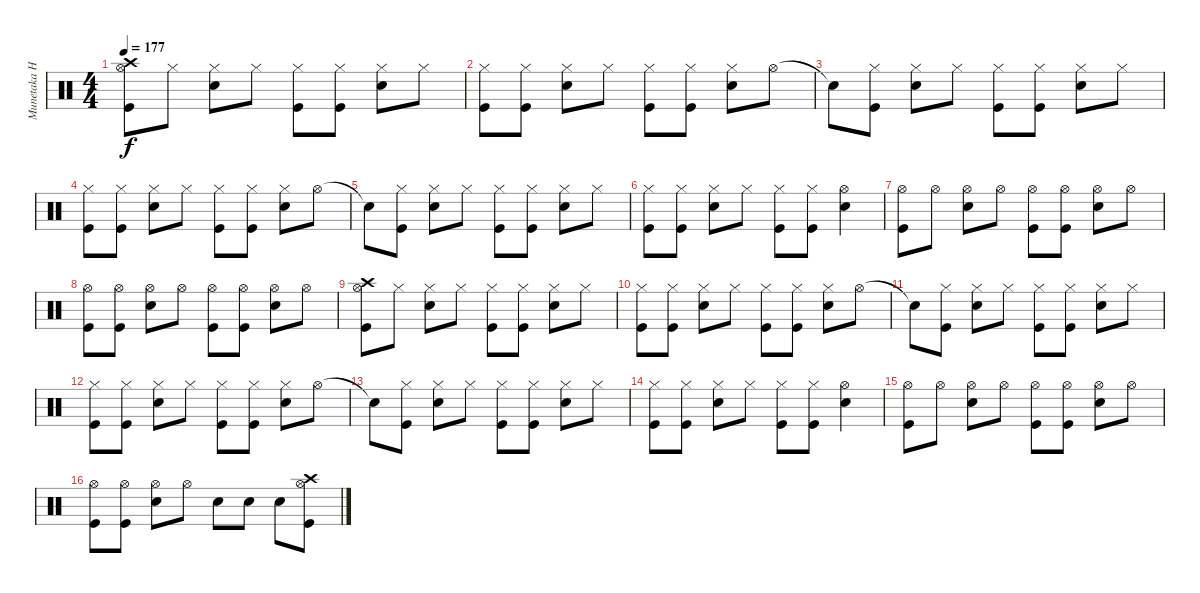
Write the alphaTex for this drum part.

\track ("Munetaka Higuchi" "Munetaka H") {instrument percussion}
\staff {score}
\articulation defaults
\ts (4 4)
\tempo 177
\clef neutral
\ks c
("Crash high (hit)" "Hi-Hat (open)" "Kick (hit)").8{dy f} "Hi-Hat (closed)".8 ("Hi-Hat (closed)" "Snare (hit) 2").8 "Hi-Hat (closed)".8 ("Hi-Hat (closed)" "Kick (hit)").8 ("Hi-Hat (closed)" "Kick (hit)").8 ("Hi-Hat (closed)" "Snare (hit) 2").8 "Hi-Hat (closed)".8 |
("Hi-Hat (closed)" "Kick (hit)").8 ("Hi-Hat (closed)" "Kick (hit)").8 ("Hi-Hat (closed)" "Snare (hit) 2").8 "Hi-Hat (closed)".8 ("Hi-Hat (closed)" "Kick (hit)").8 ("Hi-Hat (closed)" "Kick (hit)").8 ("Hi-Hat (closed)" "Snare (hit) 2").8 "Hi-Hat (open)".8 |
"Snare (hit)"{t}.8 ("Hi-Hat (closed)" "Kick (hit)").8 ("Hi-Hat (closed)" "Snare (hit) 2").8 "Hi-Hat (closed)".8 ("Hi-Hat (closed)" "Kick (hit)").8 ("Hi-Hat (closed)" "Kick (hit)").8 ("Hi-Hat (closed)" "Snare (hit) 2").8 "Hi-Hat (closed)".8 |
("Hi-Hat (closed)" "Kick (hit)").8 ("Hi-Hat (closed)" "Kick (hit)").8 ("Hi-Hat (closed)" "Snare (hit) 2").8 "Hi-Hat (closed)".8 ("Hi-Hat (closed)" "Kick (hit)").8 ("Hi-Hat (closed)" "Kick (hit)").8 ("Hi-Hat (closed)" "Snare (hit) 2").8 "Hi-Hat (open)".8 |
"Snare (hit)"{t}.8 ("Hi-Hat (closed)" "Kick (hit)").8 ("Hi-Hat (closed)" "Snare (hit) 2").8 "Hi-Hat (closed)".8 ("Hi-Hat (closed)" "Kick (hit)").8 ("Hi-Hat (closed)" "Kick (hit)").8 ("Hi-Hat (closed)" "Snare (hit) 2").8 "Hi-Hat (closed)".8 |
("Hi-Hat (closed)" "Kick (hit)").8 ("Hi-Hat (closed)" "Kick (hit)").8 ("Hi-Hat (closed)" "Snare (hit) 2").8 "Hi-Hat (closed)".8 ("Hi-Hat (closed)" "Kick (hit)").8 ("Hi-Hat (closed)" "Kick (hit)").8 ("Hi-Hat (open)" "Snare (hit) 2").4 |
("Hi-Hat (open)" "Kick (hit)").8 "Hi-Hat (open)".8 ("Hi-Hat (open)" "Snare (hit) 2").8 "Hi-Hat (open)".8 ("Hi-Hat (open)" "Kick (hit)").8 ("Hi-Hat (open)" "Kick (hit)").8 ("Hi-Hat (open)" "Snare (hit) 2").8 "Hi-Hat (open)".8 |
("Hi-Hat (open)" "Kick (hit)").8 ("Hi-Hat (open)" "Kick (hit)").8 ("Hi-Hat (open)" "Snare (hit) 2").8 "Hi-Hat (open)".8 ("Hi-Hat (open)" "Kick (hit)").8 ("Hi-Hat (open)" "Kick (hit)").8 ("Hi-Hat (open)" "Snare (hit) 2").8 "Hi-Hat (open)".8 |
("Crash high (hit)" "Hi-Hat (open)" "Kick (hit)").8 "Hi-Hat (closed)".8 ("Hi-Hat (closed)" "Snare (hit) 2").8 "Hi-Hat (closed)".8 ("Hi-Hat (closed)" "Kick (hit)").8 ("Hi-Hat (closed)" "Kick (hit)").8 ("Hi-Hat (closed)" "Snare (hit) 2").8 "Hi-Hat (closed)".8 |
("Hi-Hat (closed)" "Kick (hit)").8 ("Hi-Hat (closed)" "Kick (hit)").8 ("Hi-Hat (closed)" "Snare (hit) 2").8 "Hi-Hat (closed)".8 ("Hi-Hat (closed)" "Kick (hit)").8 ("Hi-Hat (closed)" "Kick (hit)").8 ("Hi-Hat (closed)" "Snare (hit) 2").8 "Hi-Hat (open)".8 |
"Snare (hit)"{t}.8 ("Hi-Hat (closed)" "Kick (hit)").8 ("Hi-Hat (closed)" "Snare (hit) 2").8 "Hi-Hat (closed)".8 ("Hi-Hat (closed)" "Kick (hit)").8 ("Hi-Hat (closed)" "Kick (hit)").8 ("Hi-Hat (closed)" "Snare (hit) 2").8 "Hi-Hat (closed)".8 |
("Hi-Hat (closed)" "Kick (hit)").8 ("Hi-Hat (closed)" "Kick (hit)").8 ("Hi-Hat (closed)" "Snare (hit) 2").8 "Hi-Hat (closed)".8 ("Hi-Hat (closed)" "Kick (hit)").8 ("Hi-Hat (closed)" "Kick (hit)").8 ("Hi-Hat (closed)" "Snare (hit) 2").8 "Hi-Hat (open)".8 |
"Snare (hit)"{t}.8 ("Hi-Hat (closed)" "Kick (hit)").8 ("Hi-Hat (closed)" "Snare (hit) 2").8 "Hi-Hat (closed)".8 ("Hi-Hat (closed)" "Kick (hit)").8 ("Hi-Hat (closed)" "Kick (hit)").8 ("Hi-Hat (closed)" "Snare (hit) 2").8 "Hi-Hat (closed)".8 |
("Hi-Hat (closed)" "Kick (hit)").8 ("Hi-Hat (closed)" "Kick (hit)").8 ("Hi-Hat (closed)" "Snare (hit) 2").8 "Hi-Hat (closed)".8 ("Hi-Hat (closed)" "Kick (hit)").8 ("Hi-Hat (closed)" "Kick (hit)").8 ("Hi-Hat (open)" "Snare (hit) 2").4 |
("Hi-Hat (open)" "Kick (hit)").8 "Hi-Hat (open)".8 ("Hi-Hat (open)" "Snare (hit) 2").8 "Hi-Hat (open)".8 ("Hi-Hat (open)" "Kick (hit)").8 ("Hi-Hat (open)" "Kick (hit)").8 ("Hi-Hat (open)" "Snare (hit) 2").8 "Hi-Hat (open)".8 |
("Hi-Hat (open)" "Kick (hit)").8 ("Hi-Hat (open)" "Kick (hit)").8 ("Hi-Hat (open)" "Snare (hit) 2").8 "Hi-Hat (open)".8 "Snare (hit) 2".8 "Snare (hit) 2".8 "Snare (hit) 2".8 ("Crash high (hit)" "Hi-Hat (open)" "Kick (hit)").8
